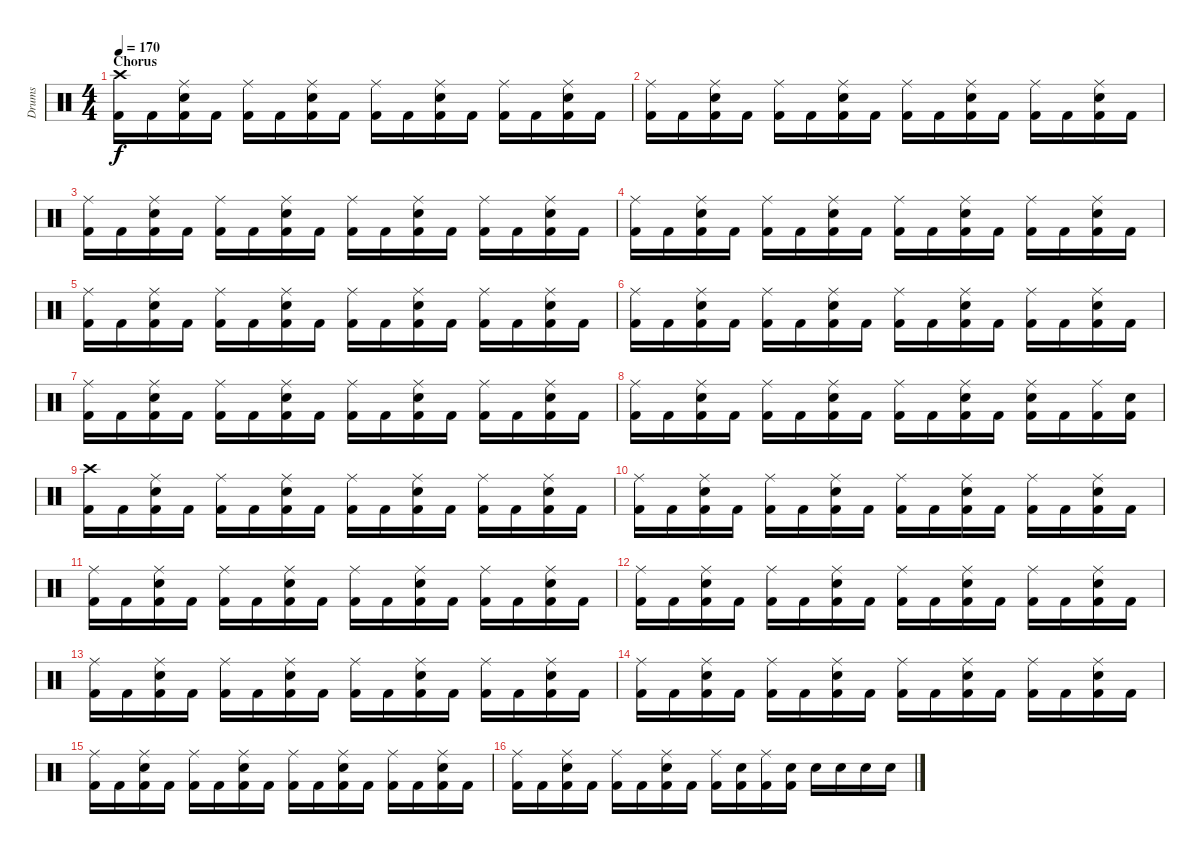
\track ("Drums" "Drums") {instrument percussion}
\staff {score}
\articulation defaults
\ts (4 4)
\section ("" "Chorus")
\tempo 170
\clef neutral
\ks c
("Crash high (hit)" "Kick (hit) 2").16{dy f} "Kick (hit) 2".16 ("Ride (middle)" "Electric Snare (hit)" "Kick (hit) 2").16 "Kick (hit) 2".16 ("Ride (middle)" "Kick (hit) 2").16 "Kick (hit) 2".16 ("Ride (middle)" "Electric Snare (hit)" "Kick (hit) 2").16 "Kick (hit) 2".16 ("Ride (middle)" "Kick (hit) 2").16 "Kick (hit) 2".16 ("Ride (middle)" "Electric Snare (hit)" "Kick (hit) 2").16 "Kick (hit) 2".16 ("Ride (middle)" "Kick (hit) 2").16 "Kick (hit) 2".16 ("Ride (middle)" "Electric Snare (hit)" "Kick (hit) 2").16 "Kick (hit) 2".16 |
("Ride (middle)" "Kick (hit) 2").16 "Kick (hit) 2".16 ("Ride (middle)" "Electric Snare (hit)" "Kick (hit) 2").16 "Kick (hit) 2".16 ("Ride (middle)" "Kick (hit) 2").16 "Kick (hit) 2".16 ("Ride (middle)" "Electric Snare (hit)" "Kick (hit) 2").16 "Kick (hit) 2".16 ("Ride (middle)" "Kick (hit) 2").16 "Kick (hit) 2".16 ("Ride (middle)" "Electric Snare (hit)" "Kick (hit) 2").16 "Kick (hit) 2".16 ("Ride (middle)" "Kick (hit) 2").16 "Kick (hit) 2".16 ("Ride (middle)" "Electric Snare (hit)" "Kick (hit) 2").16 "Kick (hit) 2".16 |
("Ride (middle)" "Kick (hit) 2").16 "Kick (hit) 2".16 ("Ride (middle)" "Electric Snare (hit)" "Kick (hit) 2").16 "Kick (hit) 2".16 ("Ride (middle)" "Kick (hit) 2").16 "Kick (hit) 2".16 ("Ride (middle)" "Electric Snare (hit)" "Kick (hit) 2").16 "Kick (hit) 2".16 ("Ride (middle)" "Kick (hit) 2").16 "Kick (hit) 2".16 ("Ride (middle)" "Electric Snare (hit)" "Kick (hit) 2").16 "Kick (hit) 2".16 ("Ride (middle)" "Kick (hit) 2").16 "Kick (hit) 2".16 ("Ride (middle)" "Electric Snare (hit)" "Kick (hit) 2").16 "Kick (hit) 2".16 |
("Ride (middle)" "Kick (hit) 2").16 "Kick (hit) 2".16 ("Ride (middle)" "Electric Snare (hit)" "Kick (hit) 2").16 "Kick (hit) 2".16 ("Ride (middle)" "Kick (hit) 2").16 "Kick (hit) 2".16 ("Ride (middle)" "Electric Snare (hit)" "Kick (hit) 2").16 "Kick (hit) 2".16 ("Ride (middle)" "Kick (hit) 2").16 "Kick (hit) 2".16 ("Ride (middle)" "Electric Snare (hit)" "Kick (hit) 2").16 "Kick (hit) 2".16 ("Ride (middle)" "Kick (hit) 2").16 "Kick (hit) 2".16 ("Ride (middle)" "Electric Snare (hit)" "Kick (hit) 2").16 "Kick (hit) 2".16 |
("Ride (middle)" "Kick (hit) 2").16 "Kick (hit) 2".16 ("Ride (middle)" "Electric Snare (hit)" "Kick (hit) 2").16 "Kick (hit) 2".16 ("Ride (middle)" "Kick (hit) 2").16 "Kick (hit) 2".16 ("Ride (middle)" "Electric Snare (hit)" "Kick (hit) 2").16 "Kick (hit) 2".16 ("Ride (middle)" "Kick (hit) 2").16 "Kick (hit) 2".16 ("Ride (middle)" "Electric Snare (hit)" "Kick (hit) 2").16 "Kick (hit) 2".16 ("Ride (middle)" "Kick (hit) 2").16 "Kick (hit) 2".16 ("Ride (middle)" "Electric Snare (hit)" "Kick (hit) 2").16 "Kick (hit) 2".16 |
("Ride (middle)" "Kick (hit) 2").16 "Kick (hit) 2".16 ("Ride (middle)" "Electric Snare (hit)" "Kick (hit) 2").16 "Kick (hit) 2".16 ("Ride (middle)" "Kick (hit) 2").16 "Kick (hit) 2".16 ("Ride (middle)" "Electric Snare (hit)" "Kick (hit) 2").16 "Kick (hit) 2".16 ("Ride (middle)" "Kick (hit) 2").16 "Kick (hit) 2".16 ("Ride (middle)" "Electric Snare (hit)" "Kick (hit) 2").16 "Kick (hit) 2".16 ("Ride (middle)" "Kick (hit) 2").16 "Kick (hit) 2".16 ("Ride (middle)" "Electric Snare (hit)" "Kick (hit) 2").16 "Kick (hit) 2".16 |
("Ride (middle)" "Kick (hit) 2").16 "Kick (hit) 2".16 ("Ride (middle)" "Electric Snare (hit)" "Kick (hit) 2").16 "Kick (hit) 2".16 ("Ride (middle)" "Kick (hit) 2").16 "Kick (hit) 2".16 ("Ride (middle)" "Electric Snare (hit)" "Kick (hit) 2").16 "Kick (hit) 2".16 ("Ride (middle)" "Kick (hit) 2").16 "Kick (hit) 2".16 ("Ride (middle)" "Electric Snare (hit)" "Kick (hit) 2").16 "Kick (hit) 2".16 ("Ride (middle)" "Kick (hit) 2").16 "Kick (hit) 2".16 ("Ride (middle)" "Electric Snare (hit)" "Kick (hit) 2").16 "Kick (hit) 2".16 |
("Ride (middle)" "Kick (hit) 2").16 "Kick (hit) 2".16 ("Ride (middle)" "Electric Snare (hit)" "Kick (hit) 2").16 "Kick (hit) 2".16 ("Ride (middle)" "Kick (hit) 2").16 "Kick (hit) 2".16 ("Ride (middle)" "Electric Snare (hit)" "Kick (hit) 2").16 "Kick (hit) 2".16 ("Ride (middle)" "Kick (hit) 2").16 "Kick (hit) 2".16 ("Ride (middle)" "Electric Snare (hit)" "Kick (hit) 2").16 "Kick (hit) 2".16 ("Ride (middle)" "Electric Snare (hit)" "Kick (hit) 2").16 "Kick (hit) 2".16 ("Ride (middle)" "Kick (hit) 2").16 ("Electric Snare (hit)" "Kick (hit) 2").16 |
("Crash high (hit)" "Kick (hit) 2").16 "Kick (hit) 2".16 ("Ride (middle)" "Electric Snare (hit)" "Kick (hit) 2").16 "Kick (hit) 2".16 ("Ride (middle)" "Kick (hit) 2").16 "Kick (hit) 2".16 ("Ride (middle)" "Electric Snare (hit)" "Kick (hit) 2").16 "Kick (hit) 2".16 ("Ride (middle)" "Kick (hit) 2").16 "Kick (hit) 2".16 ("Ride (middle)" "Electric Snare (hit)" "Kick (hit) 2").16 "Kick (hit) 2".16 ("Ride (middle)" "Kick (hit) 2").16 "Kick (hit) 2".16 ("Ride (middle)" "Electric Snare (hit)" "Kick (hit) 2").16 "Kick (hit) 2".16 |
("Ride (middle)" "Kick (hit) 2").16 "Kick (hit) 2".16 ("Ride (middle)" "Electric Snare (hit)" "Kick (hit) 2").16 "Kick (hit) 2".16 ("Ride (middle)" "Kick (hit) 2").16 "Kick (hit) 2".16 ("Ride (middle)" "Electric Snare (hit)" "Kick (hit) 2").16 "Kick (hit) 2".16 ("Ride (middle)" "Kick (hit) 2").16 "Kick (hit) 2".16 ("Ride (middle)" "Electric Snare (hit)" "Kick (hit) 2").16 "Kick (hit) 2".16 ("Ride (middle)" "Kick (hit) 2").16 "Kick (hit) 2".16 ("Ride (middle)" "Electric Snare (hit)" "Kick (hit) 2").16 "Kick (hit) 2".16 |
("Ride (middle)" "Kick (hit) 2").16 "Kick (hit) 2".16 ("Ride (middle)" "Electric Snare (hit)" "Kick (hit) 2").16 "Kick (hit) 2".16 ("Ride (middle)" "Kick (hit) 2").16 "Kick (hit) 2".16 ("Ride (middle)" "Electric Snare (hit)" "Kick (hit) 2").16 "Kick (hit) 2".16 ("Ride (middle)" "Kick (hit) 2").16 "Kick (hit) 2".16 ("Ride (middle)" "Electric Snare (hit)" "Kick (hit) 2").16 "Kick (hit) 2".16 ("Ride (middle)" "Kick (hit) 2").16 "Kick (hit) 2".16 ("Ride (middle)" "Electric Snare (hit)" "Kick (hit) 2").16 "Kick (hit) 2".16 |
("Ride (middle)" "Kick (hit) 2").16 "Kick (hit) 2".16 ("Ride (middle)" "Electric Snare (hit)" "Kick (hit) 2").16 "Kick (hit) 2".16 ("Ride (middle)" "Kick (hit) 2").16 "Kick (hit) 2".16 ("Ride (middle)" "Electric Snare (hit)" "Kick (hit) 2").16 "Kick (hit) 2".16 ("Ride (middle)" "Kick (hit) 2").16 "Kick (hit) 2".16 ("Ride (middle)" "Electric Snare (hit)" "Kick (hit) 2").16 "Kick (hit) 2".16 ("Ride (middle)" "Kick (hit) 2").16 "Kick (hit) 2".16 ("Ride (middle)" "Electric Snare (hit)" "Kick (hit) 2").16 "Kick (hit) 2".16 |
("Ride (middle)" "Kick (hit) 2").16 "Kick (hit) 2".16 ("Ride (middle)" "Electric Snare (hit)" "Kick (hit) 2").16 "Kick (hit) 2".16 ("Ride (middle)" "Kick (hit) 2").16 "Kick (hit) 2".16 ("Ride (middle)" "Electric Snare (hit)" "Kick (hit) 2").16 "Kick (hit) 2".16 ("Ride (middle)" "Kick (hit) 2").16 "Kick (hit) 2".16 ("Ride (middle)" "Electric Snare (hit)" "Kick (hit) 2").16 "Kick (hit) 2".16 ("Ride (middle)" "Kick (hit) 2").16 "Kick (hit) 2".16 ("Ride (middle)" "Electric Snare (hit)" "Kick (hit) 2").16 "Kick (hit) 2".16 |
("Ride (middle)" "Kick (hit) 2").16 "Kick (hit) 2".16 ("Ride (middle)" "Electric Snare (hit)" "Kick (hit) 2").16 "Kick (hit) 2".16 ("Ride (middle)" "Kick (hit) 2").16 "Kick (hit) 2".16 ("Ride (middle)" "Electric Snare (hit)" "Kick (hit) 2").16 "Kick (hit) 2".16 ("Ride (middle)" "Kick (hit) 2").16 "Kick (hit) 2".16 ("Ride (middle)" "Electric Snare (hit)" "Kick (hit) 2").16 "Kick (hit) 2".16 ("Ride (middle)" "Kick (hit) 2").16 "Kick (hit) 2".16 ("Ride (middle)" "Electric Snare (hit)" "Kick (hit) 2").16 "Kick (hit) 2".16 |
("Ride (middle)" "Kick (hit) 2").16 "Kick (hit) 2".16 ("Ride (middle)" "Electric Snare (hit)" "Kick (hit) 2").16 "Kick (hit) 2".16 ("Ride (middle)" "Kick (hit) 2").16 "Kick (hit) 2".16 ("Ride (middle)" "Electric Snare (hit)" "Kick (hit) 2").16 "Kick (hit) 2".16 ("Ride (middle)" "Kick (hit) 2").16 "Kick (hit) 2".16 ("Ride (middle)" "Electric Snare (hit)" "Kick (hit) 2").16 "Kick (hit) 2".16 ("Ride (middle)" "Kick (hit) 2").16 "Kick (hit) 2".16 ("Ride (middle)" "Electric Snare (hit)" "Kick (hit) 2").16 "Kick (hit) 2".16 |
("Ride (middle)" "Kick (hit) 2").16 "Kick (hit) 2".16 ("Ride (middle)" "Electric Snare (hit)" "Kick (hit) 2").16 "Kick (hit) 2".16 ("Ride (middle)" "Kick (hit) 2").16 "Kick (hit) 2".16 ("Ride (middle)" "Electric Snare (hit)" "Kick (hit) 2").16 "Kick (hit) 2".16 ("Ride (middle)" "Kick (hit) 2").16 ("Electric Snare (hit)" "Kick (hit) 2").16 ("Ride (middle)" "Kick (hit) 2").16 ("Electric Snare (hit)" "Kick (hit) 2").16 "Electric Snare (hit)".16 "Electric Snare (hit)".16 "Electric Snare (hit)".16 "Electric Snare (hit)".16
